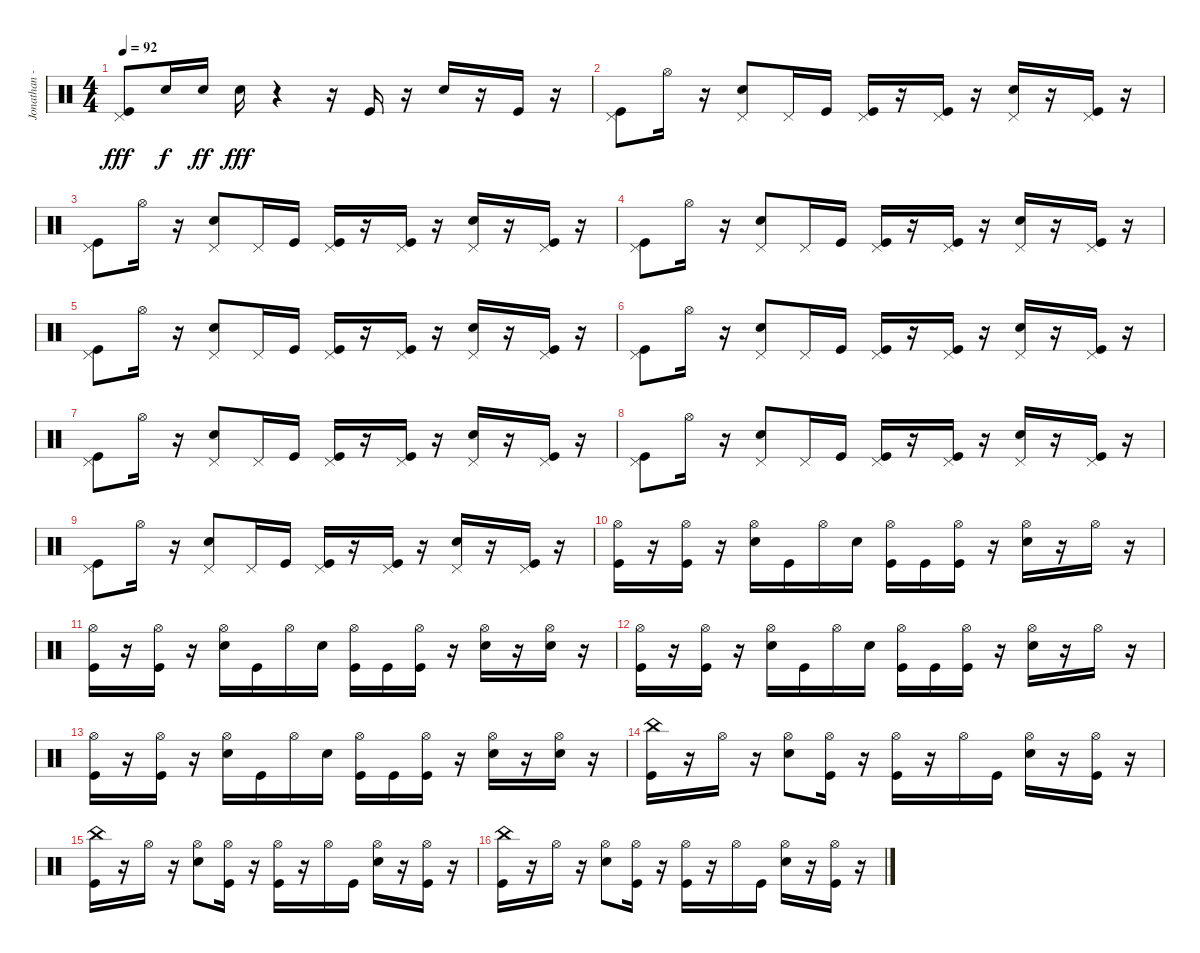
\track ("Jonathan - Drums" "Jonathan -") {instrument percussion}
\staff {score}
\articulation defaults
\ts (4 4)
\tempo 92
\clef neutral
\ks c
("Kick (hit)" "Pedal Hi-Hat (hit)").8{dy fff} "Electric Snare (hit)".16{dy f} "Electric Snare (hit)".16{dy ff} "Electric Snare (hit)".16{dy fff} r.4 r.16 "Kick (hit)".16 r.16 "Electric Snare (hit)".16 r.16 "Kick (hit)".16 r.16 |
("Kick (hit)" "Pedal Hi-Hat (hit)").8 "Hi-Hat (open)".16 r.16 ("Electric Snare (hit)" "Pedal Hi-Hat (hit)").8 "Pedal Hi-Hat (hit)".16 "Kick (hit)".16 ("Kick (hit)" "Pedal Hi-Hat (hit)").16 r.16 ("Kick (hit)" "Pedal Hi-Hat (hit)").16 r.16 ("Electric Snare (hit)" "Pedal Hi-Hat (hit)").16 r.16 ("Kick (hit)" "Pedal Hi-Hat (hit)").16 r.16 |
("Kick (hit)" "Pedal Hi-Hat (hit)").8 "Hi-Hat (open)".16 r.16 ("Electric Snare (hit)" "Pedal Hi-Hat (hit)").8 "Pedal Hi-Hat (hit)".16 "Kick (hit)".16 ("Kick (hit)" "Pedal Hi-Hat (hit)").16 r.16 ("Kick (hit)" "Pedal Hi-Hat (hit)").16 r.16 ("Electric Snare (hit)" "Pedal Hi-Hat (hit)").16 r.16 ("Kick (hit)" "Pedal Hi-Hat (hit)").16 r.16 |
("Kick (hit)" "Pedal Hi-Hat (hit)").8 "Hi-Hat (open)".16 r.16 ("Electric Snare (hit)" "Pedal Hi-Hat (hit)").8 "Pedal Hi-Hat (hit)".16 "Kick (hit)".16 ("Kick (hit)" "Pedal Hi-Hat (hit)").16 r.16 ("Kick (hit)" "Pedal Hi-Hat (hit)").16 r.16 ("Electric Snare (hit)" "Pedal Hi-Hat (hit)").16 r.16 ("Kick (hit)" "Pedal Hi-Hat (hit)").16 r.16 |
("Kick (hit)" "Pedal Hi-Hat (hit)").8 "Hi-Hat (open)".16 r.16 ("Electric Snare (hit)" "Pedal Hi-Hat (hit)").8 "Pedal Hi-Hat (hit)".16 "Kick (hit)".16 ("Kick (hit)" "Pedal Hi-Hat (hit)").16 r.16 ("Kick (hit)" "Pedal Hi-Hat (hit)").16 r.16 ("Electric Snare (hit)" "Pedal Hi-Hat (hit)").16 r.16 ("Kick (hit)" "Pedal Hi-Hat (hit)").16 r.16 |
("Kick (hit)" "Pedal Hi-Hat (hit)").8 "Hi-Hat (open)".16 r.16 ("Electric Snare (hit)" "Pedal Hi-Hat (hit)").8 "Pedal Hi-Hat (hit)".16 "Kick (hit)".16 ("Kick (hit)" "Pedal Hi-Hat (hit)").16 r.16 ("Kick (hit)" "Pedal Hi-Hat (hit)").16 r.16 ("Electric Snare (hit)" "Pedal Hi-Hat (hit)").16 r.16 ("Kick (hit)" "Pedal Hi-Hat (hit)").16 r.16 |
("Kick (hit)" "Pedal Hi-Hat (hit)").8 "Hi-Hat (open)".16 r.16 ("Electric Snare (hit)" "Pedal Hi-Hat (hit)").8 "Pedal Hi-Hat (hit)".16 "Kick (hit)".16 ("Kick (hit)" "Pedal Hi-Hat (hit)").16 r.16 ("Kick (hit)" "Pedal Hi-Hat (hit)").16 r.16 ("Electric Snare (hit)" "Pedal Hi-Hat (hit)").16 r.16 ("Kick (hit)" "Pedal Hi-Hat (hit)").16 r.16 |
("Kick (hit)" "Pedal Hi-Hat (hit)").8 "Hi-Hat (open)".16 r.16 ("Electric Snare (hit)" "Pedal Hi-Hat (hit)").8 "Pedal Hi-Hat (hit)".16 "Kick (hit)".16 ("Kick (hit)" "Pedal Hi-Hat (hit)").16 r.16 ("Kick (hit)" "Pedal Hi-Hat (hit)").16 r.16 ("Electric Snare (hit)" "Pedal Hi-Hat (hit)").16 r.16 ("Kick (hit)" "Pedal Hi-Hat (hit)").16 r.16 |
("Kick (hit)" "Pedal Hi-Hat (hit)").8 "Hi-Hat (open)".16 r.16 ("Electric Snare (hit)" "Pedal Hi-Hat (hit)").8 "Pedal Hi-Hat (hit)".16 "Kick (hit)".16 ("Kick (hit)" "Pedal Hi-Hat (hit)").16 r.16 ("Kick (hit)" "Pedal Hi-Hat (hit)").16 r.16 ("Electric Snare (hit)" "Pedal Hi-Hat (hit)").16 r.16 ("Kick (hit)" "Pedal Hi-Hat (hit)").16 r.16 |
("Hi-Hat (open)" "Kick (hit)").16 r.16 ("Hi-Hat (open)" "Kick (hit)").16 r.16 ("Hi-Hat (open)" "Electric Snare (hit)").16 "Kick (hit)".16 "Hi-Hat (open)".16 "Electric Snare (hit)".16 ("Hi-Hat (open)" "Kick (hit)").16 "Kick (hit)".16 ("Hi-Hat (open)" "Kick (hit)").16 r.16 ("Hi-Hat (open)" "Electric Snare (hit)").16 r.16 "Hi-Hat (open)".16 r.16 |
("Hi-Hat (open)" "Kick (hit)").16 r.16 ("Hi-Hat (open)" "Kick (hit)").16 r.16 ("Hi-Hat (open)" "Electric Snare (hit)").16 "Kick (hit)".16 "Hi-Hat (open)".16 "Electric Snare (hit)".16 ("Hi-Hat (open)" "Kick (hit)").16 "Kick (hit)".16 ("Hi-Hat (open)" "Kick (hit)").16 r.16 ("Hi-Hat (open)" "Electric Snare (hit)").16 r.16 ("Hi-Hat (open)" "Electric Snare (hit)").16 r.16 |
("Hi-Hat (open)" "Kick (hit)").16 r.16 ("Hi-Hat (open)" "Kick (hit)").16 r.16 ("Hi-Hat (open)" "Electric Snare (hit)").16 "Kick (hit)".16 "Hi-Hat (open)".16 "Electric Snare (hit)".16 ("Hi-Hat (open)" "Kick (hit)").16 "Kick (hit)".16 ("Hi-Hat (open)" "Kick (hit)").16 r.16 ("Hi-Hat (open)" "Electric Snare (hit)").16 r.16 "Hi-Hat (open)".16 r.16 |
("Hi-Hat (open)" "Kick (hit)").16 r.16 ("Hi-Hat (open)" "Kick (hit)").16 r.16 ("Hi-Hat (open)" "Electric Snare (hit)").16 "Kick (hit)".16 "Hi-Hat (open)".16 "Electric Snare (hit)".16 ("Hi-Hat (open)" "Kick (hit)").16 "Kick (hit)".16 ("Hi-Hat (open)" "Kick (hit)").16 r.16 ("Hi-Hat (open)" "Electric Snare (hit)").16 r.16 ("Hi-Hat (open)" "Electric Snare (hit)").16 r.16 |
("China (hit)" "Kick (hit)").16 r.16 "Hi-Hat (open)".16 r.16 ("Electric Snare (hit)" "Hi-Hat (open)").8 ("Kick (hit)" "Hi-Hat (open)").16 r.16 ("Kick (hit)" "Hi-Hat (open)").16 r.16 "Hi-Hat (open)".16 "Kick (hit)".16 ("Electric Snare (hit)" "Hi-Hat (open)").16 r.16 ("Kick (hit)" "Hi-Hat (open)").16 r.16 |
("China (hit)" "Kick (hit)").16 r.16 "Hi-Hat (open)".16 r.16 ("Hi-Hat (open)" "Electric Snare (hit)").8 ("Hi-Hat (open)" "Kick (hit)").16 r.16 ("Hi-Hat (open)" "Kick (hit)").16 r.16 "Hi-Hat (open)".16 "Kick (hit)".16 ("Hi-Hat (open)" "Electric Snare (hit)").16 r.16 ("Hi-Hat (open)" "Kick (hit)").16 r.16 |
("China (hit)" "Kick (hit)").16 r.16 "Hi-Hat (open)".16 r.16 ("Electric Snare (hit)" "Hi-Hat (open)").8 ("Kick (hit)" "Hi-Hat (open)").16 r.16 ("Kick (hit)" "Hi-Hat (open)").16 r.16 "Hi-Hat (open)".16 "Kick (hit)".16 ("Electric Snare (hit)" "Hi-Hat (open)").16 r.16 ("Kick (hit)" "Hi-Hat (open)").16 r.16
